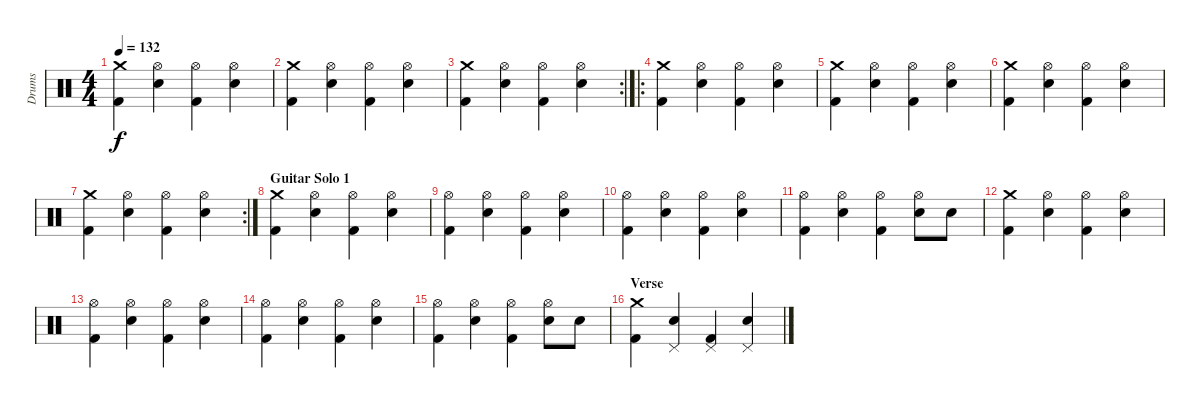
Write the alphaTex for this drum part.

\track ("Drums" "Drums") {instrument percussion}
\staff {score}
\articulation defaults
\ts (4 4)
\tempo 132
\clef neutral
\ks c
("Kick (hit) 2" "Crash medium (hit)").4{dy f} ("Electric Snare (hit)" "Hi-Hat (open)").4 ("Kick (hit) 2" "Hi-Hat (open)").4 ("Electric Snare (hit)" "Hi-Hat (open)").4 |
("Kick (hit) 2" "Crash medium (hit)").4 ("Electric Snare (hit)" "Hi-Hat (open)").4 ("Kick (hit) 2" "Hi-Hat (open)").4 ("Electric Snare (hit)" "Hi-Hat (open)").4 |
\rc 2
("Kick (hit) 2" "Crash medium (hit)").4 ("Electric Snare (hit)" "Hi-Hat (open)").4 ("Kick (hit) 2" "Hi-Hat (open)").4 ("Electric Snare (hit)" "Hi-Hat (open)").4 |
\ro
("Kick (hit) 2" "Crash medium (hit)").4 ("Electric Snare (hit)" "Hi-Hat (open)").4 ("Kick (hit) 2" "Hi-Hat (open)").4 ("Electric Snare (hit)" "Hi-Hat (open)").4 |
("Kick (hit) 2" "Crash medium (hit)").4 ("Electric Snare (hit)" "Hi-Hat (open)").4 ("Kick (hit) 2" "Hi-Hat (open)").4 ("Electric Snare (hit)" "Hi-Hat (open)").4 |
("Kick (hit) 2" "Crash medium (hit)").4 ("Electric Snare (hit)" "Hi-Hat (open)").4 ("Kick (hit) 2" "Hi-Hat (open)").4 ("Electric Snare (hit)" "Hi-Hat (open)").4 |
\rc 2
("Kick (hit) 2" "Crash medium (hit)").4 ("Electric Snare (hit)" "Hi-Hat (open)").4 ("Kick (hit) 2" "Hi-Hat (open)").4 ("Electric Snare (hit)" "Hi-Hat (open)").4 |
\section ("" "Guitar Solo 1")
("Kick (hit) 2" "Crash medium (hit)").4{volume 9} ("Electric Snare (hit)" "Hi-Hat (open)").4 ("Kick (hit) 2" "Hi-Hat (open)").4 ("Electric Snare (hit)" "Hi-Hat (open)").4 |
("Kick (hit) 2" "Hi-Hat (open)").4 ("Electric Snare (hit)" "Hi-Hat (open)").4 ("Kick (hit) 2" "Hi-Hat (open)").4 ("Electric Snare (hit)" "Hi-Hat (open)").4 |
("Kick (hit) 2" "Hi-Hat (open)").4 ("Electric Snare (hit)" "Hi-Hat (open)").4 ("Kick (hit) 2" "Hi-Hat (open)").4 ("Electric Snare (hit)" "Hi-Hat (open)").4 |
("Kick (hit) 2" "Hi-Hat (open)").4 ("Electric Snare (hit)" "Hi-Hat (open)").4 ("Kick (hit) 2" "Hi-Hat (open)").4 ("Electric Snare (hit)" "Hi-Hat (open)").8 "Snare (hit) 2".8 |
("Kick (hit) 2" "Crash medium (hit)").4{volume 9} ("Electric Snare (hit)" "Hi-Hat (open)").4 ("Kick (hit) 2" "Hi-Hat (open)").4 ("Electric Snare (hit)" "Hi-Hat (open)").4 |
("Kick (hit) 2" "Hi-Hat (open)").4 ("Electric Snare (hit)" "Hi-Hat (open)").4 ("Kick (hit) 2" "Hi-Hat (open)").4 ("Electric Snare (hit)" "Hi-Hat (open)").4 |
("Kick (hit) 2" "Hi-Hat (open)").4 ("Electric Snare (hit)" "Hi-Hat (open)").4 ("Kick (hit) 2" "Hi-Hat (open)").4 ("Electric Snare (hit)" "Hi-Hat (open)").4 |
("Kick (hit) 2" "Hi-Hat (open)").4 ("Electric Snare (hit)" "Hi-Hat (open)").4 ("Kick (hit) 2" "Hi-Hat (open)").4 ("Electric Snare (hit)" "Hi-Hat (open)").8 "Snare (hit) 2".8 |
\section ("" "Verse")
("Kick (hit) 2" "Crash medium (hit)").4 ("Snare (hit) 2" "Pedal Hi-Hat (hit)").4 ("Kick (hit) 2" "Pedal Hi-Hat (hit)").4 ("Snare (hit) 2" "Pedal Hi-Hat (hit)").4
